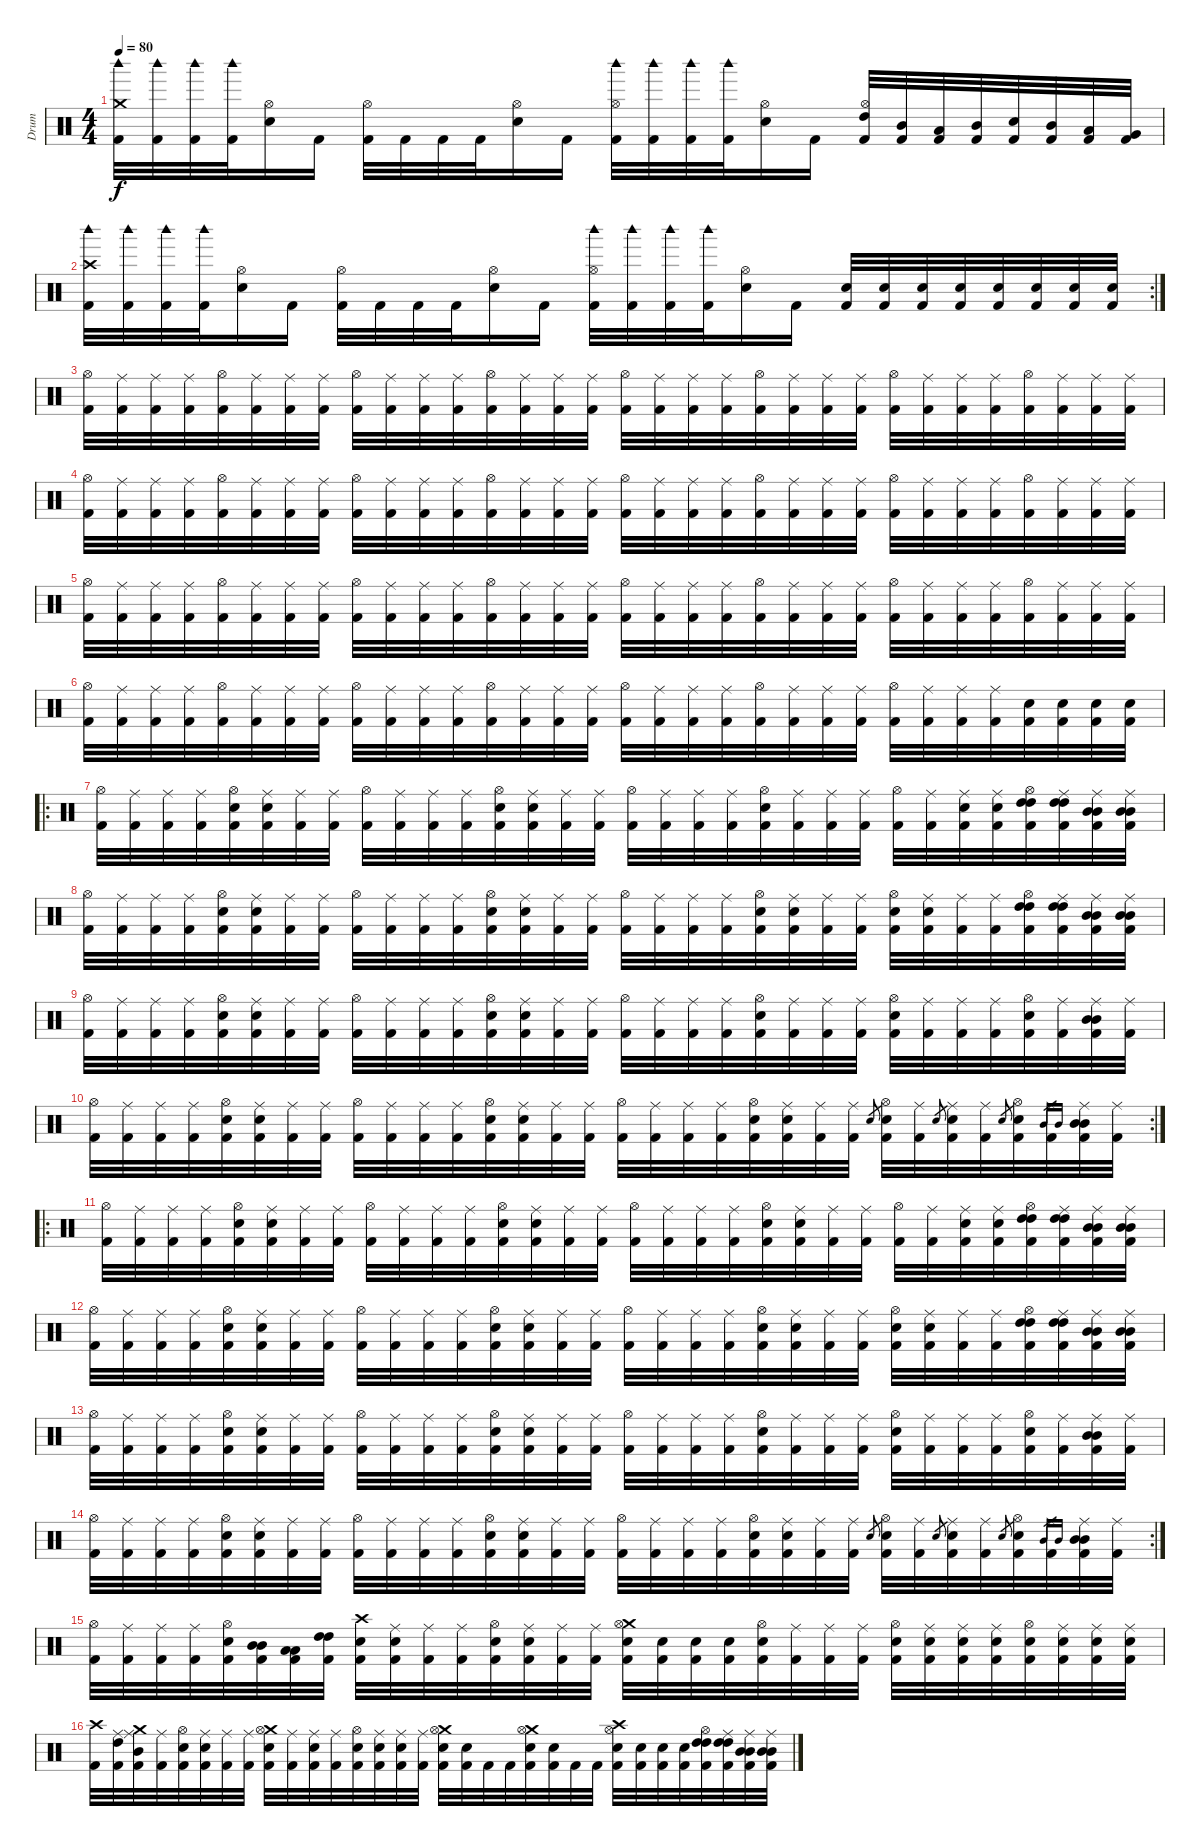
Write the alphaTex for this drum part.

\track ("Drum" "Drum") {instrument percussion}
\staff {score}
\articulation defaults
\ts (4 4)
\tempo 80
\clef neutral
\ks c
("Woodblock high (hit)" "Crash medium (hit)" "Kick (hit) 2").32{dy f} ("Woodblock high (hit)" "Kick (hit) 2").32 ("Woodblock high (hit)" "Kick (hit) 2").32 ("Woodblock high (hit)" "Kick (hit) 2").32 ("Hi-Hat (open)" "Electric Snare (hit)").16 "Kick (hit) 2".16 ("Hi-Hat (open)" "Kick (hit) 2").32 "Kick (hit) 2".32 "Kick (hit) 2".32 "Kick (hit) 2".32 ("Hi-Hat (open)" "Electric Snare (hit)").16 "Kick (hit) 2".16 ("Woodblock high (hit)" "Hi-Hat (open)" "Kick (hit) 2").32 ("Woodblock high (hit)" "Kick (hit) 2").32 ("Woodblock high (hit)" "Kick (hit) 2").32 ("Woodblock high (hit)" "Kick (hit) 2").32 ("Hi-Hat (open)" "Electric Snare (hit)").16 "Kick (hit) 2".16 ("Hi-Hat (open)" "High Tom (hit)" "Kick (hit) 2").32 ("Mid Tom (hit)" "Kick (hit) 2").32 ("Low Tom (hit)" "Kick (hit) 2").32 ("Mid Tom (hit)" "Kick (hit) 2").32 ("Electric Snare (hit)" "Kick (hit) 2").32 ("Mid Tom (hit)" "Kick (hit) 2").32 ("Low Tom (hit)" "Kick (hit) 2").32 ("Very Low Tom (hit)" "Kick (hit) 2").32 |
\rc 2
("Woodblock high (hit)" "Crash high (hit)" "Kick (hit) 2").32 ("Woodblock high (hit)" "Kick (hit) 2").32 ("Woodblock high (hit)" "Kick (hit) 2").32 ("Woodblock high (hit)" "Kick (hit) 2").32 ("Hi-Hat (open)" "Electric Snare (hit)").16 "Kick (hit) 2".16 ("Hi-Hat (open)" "Kick (hit) 2").32 "Kick (hit) 2".32 "Kick (hit) 2".32 "Kick (hit) 2".32 ("Hi-Hat (open)" "Electric Snare (hit)").16 "Kick (hit) 2".16 ("Woodblock high (hit)" "Hi-Hat (open)" "Kick (hit) 2").32 ("Woodblock high (hit)" "Kick (hit) 2").32 ("Woodblock high (hit)" "Kick (hit) 2").32 ("Woodblock high (hit)" "Kick (hit) 2").32 ("Hi-Hat (open)" "Electric Snare (hit)").16 "Kick (hit) 2".16 ("Electric Snare (hit)" "Kick (hit) 2").32 ("Electric Snare (hit)" "Kick (hit) 2").32 ("Electric Snare (hit)" "Kick (hit) 2").32 ("Electric Snare (hit)" "Kick (hit) 2").32 ("Electric Snare (hit)" "Kick (hit) 2").32 ("Electric Snare (hit)" "Kick (hit) 2").32 ("Electric Snare (hit)" "Kick (hit) 2").32 ("Electric Snare (hit)" "Kick (hit) 2").32 |
("Hi-Hat (open)" "Kick (hit) 2").32 ("Ride (middle)" "Kick (hit) 2").32 ("Ride (middle)" "Kick (hit) 2").32 ("Ride (middle)" "Kick (hit) 2").32 ("Hi-Hat (open)" "Kick (hit) 2").32 ("Ride (middle)" "Kick (hit) 2").32 ("Ride (middle)" "Kick (hit) 2").32 ("Ride (middle)" "Kick (hit) 2").32 ("Hi-Hat (open)" "Kick (hit) 2").32 ("Ride (middle)" "Kick (hit) 2").32 ("Ride (middle)" "Kick (hit) 2").32 ("Ride (middle)" "Kick (hit) 2").32 ("Hi-Hat (open)" "Kick (hit) 2").32 ("Ride (middle)" "Kick (hit) 2").32 ("Ride (middle)" "Kick (hit) 2").32 ("Ride (middle)" "Kick (hit) 2").32 ("Hi-Hat (open)" "Kick (hit) 2").32 ("Ride (middle)" "Kick (hit) 2").32 ("Ride (middle)" "Kick (hit) 2").32 ("Ride (middle)" "Kick (hit) 2").32 ("Hi-Hat (open)" "Kick (hit) 2").32 ("Ride (middle)" "Kick (hit) 2").32 ("Ride (middle)" "Kick (hit) 2").32 ("Ride (middle)" "Kick (hit) 2").32 ("Hi-Hat (open)" "Kick (hit) 2").32 ("Ride (middle)" "Kick (hit) 2").32 ("Ride (middle)" "Kick (hit) 2").32 ("Ride (middle)" "Kick (hit) 2").32 ("Hi-Hat (open)" "Kick (hit) 2").32 ("Ride (middle)" "Kick (hit) 2").32 ("Ride (middle)" "Kick (hit) 2").32 ("Ride (middle)" "Kick (hit) 2").32 |
("Hi-Hat (open)" "Kick (hit) 2").32 ("Ride (middle)" "Kick (hit) 2").32 ("Ride (middle)" "Kick (hit) 2").32 ("Ride (middle)" "Kick (hit) 2").32 ("Hi-Hat (open)" "Kick (hit) 2").32 ("Ride (middle)" "Kick (hit) 2").32 ("Ride (middle)" "Kick (hit) 2").32 ("Ride (middle)" "Kick (hit) 2").32 ("Hi-Hat (open)" "Kick (hit) 2").32 ("Ride (middle)" "Kick (hit) 2").32 ("Ride (middle)" "Kick (hit) 2").32 ("Ride (middle)" "Kick (hit) 2").32 ("Hi-Hat (open)" "Kick (hit) 2").32 ("Ride (middle)" "Kick (hit) 2").32 ("Ride (middle)" "Kick (hit) 2").32 ("Ride (middle)" "Kick (hit) 2").32 ("Hi-Hat (open)" "Kick (hit) 2").32 ("Ride (middle)" "Kick (hit) 2").32 ("Ride (middle)" "Kick (hit) 2").32 ("Ride (middle)" "Kick (hit) 2").32 ("Hi-Hat (open)" "Kick (hit) 2").32 ("Ride (middle)" "Kick (hit) 2").32 ("Ride (middle)" "Kick (hit) 2").32 ("Ride (middle)" "Kick (hit) 2").32 ("Hi-Hat (open)" "Kick (hit) 2").32 ("Ride (middle)" "Kick (hit) 2").32 ("Ride (middle)" "Kick (hit) 2").32 ("Ride (middle)" "Kick (hit) 2").32 ("Hi-Hat (open)" "Kick (hit) 2").32 ("Ride (middle)" "Kick (hit) 2").32 ("Ride (middle)" "Kick (hit) 2").32 ("Ride (middle)" "Kick (hit) 2").32 |
("Hi-Hat (open)" "Kick (hit) 2").32 ("Ride (middle)" "Kick (hit) 2").32 ("Ride (middle)" "Kick (hit) 2").32 ("Ride (middle)" "Kick (hit) 2").32 ("Hi-Hat (open)" "Kick (hit) 2").32 ("Ride (middle)" "Kick (hit) 2").32 ("Ride (middle)" "Kick (hit) 2").32 ("Ride (middle)" "Kick (hit) 2").32 ("Hi-Hat (open)" "Kick (hit) 2").32 ("Ride (middle)" "Kick (hit) 2").32 ("Ride (middle)" "Kick (hit) 2").32 ("Ride (middle)" "Kick (hit) 2").32 ("Hi-Hat (open)" "Kick (hit) 2").32 ("Ride (middle)" "Kick (hit) 2").32 ("Ride (middle)" "Kick (hit) 2").32 ("Ride (middle)" "Kick (hit) 2").32 ("Hi-Hat (open)" "Kick (hit) 2").32 ("Ride (middle)" "Kick (hit) 2").32 ("Ride (middle)" "Kick (hit) 2").32 ("Ride (middle)" "Kick (hit) 2").32 ("Hi-Hat (open)" "Kick (hit) 2").32 ("Ride (middle)" "Kick (hit) 2").32 ("Ride (middle)" "Kick (hit) 2").32 ("Ride (middle)" "Kick (hit) 2").32 ("Hi-Hat (open)" "Kick (hit) 2").32 ("Ride (middle)" "Kick (hit) 2").32 ("Ride (middle)" "Kick (hit) 2").32 ("Ride (middle)" "Kick (hit) 2").32 ("Hi-Hat (open)" "Kick (hit) 2").32 ("Ride (middle)" "Kick (hit) 2").32 ("Ride (middle)" "Kick (hit) 2").32 ("Ride (middle)" "Kick (hit) 2").32 |
("Hi-Hat (open)" "Kick (hit) 2").32 ("Ride (middle)" "Kick (hit) 2").32 ("Ride (middle)" "Kick (hit) 2").32 ("Ride (middle)" "Kick (hit) 2").32 ("Hi-Hat (open)" "Kick (hit) 2").32 ("Ride (middle)" "Kick (hit) 2").32 ("Ride (middle)" "Kick (hit) 2").32 ("Ride (middle)" "Kick (hit) 2").32 ("Hi-Hat (open)" "Kick (hit) 2").32 ("Ride (middle)" "Kick (hit) 2").32 ("Ride (middle)" "Kick (hit) 2").32 ("Ride (middle)" "Kick (hit) 2").32 ("Hi-Hat (open)" "Kick (hit) 2").32 ("Ride (middle)" "Kick (hit) 2").32 ("Ride (middle)" "Kick (hit) 2").32 ("Ride (middle)" "Kick (hit) 2").32 ("Hi-Hat (open)" "Kick (hit) 2").32 ("Ride (middle)" "Kick (hit) 2").32 ("Ride (middle)" "Kick (hit) 2").32 ("Ride (middle)" "Kick (hit) 2").32 ("Hi-Hat (open)" "Kick (hit) 2").32 ("Ride (middle)" "Kick (hit) 2").32 ("Ride (middle)" "Kick (hit) 2").32 ("Ride (middle)" "Kick (hit) 2").32 ("Hi-Hat (open)" "Kick (hit) 2").32 ("Ride (middle)" "Kick (hit) 2").32 ("Ride (middle)" "Kick (hit) 2").32 ("Ride (middle)" "Kick (hit) 2").32 ("Electric Snare (hit)" "Kick (hit) 2").32 ("Electric Snare (hit)" "Kick (hit) 2").32 ("Electric Snare (hit)" "Kick (hit) 2").32 ("Electric Snare (hit)" "Kick (hit) 2").32 |
\ro
("Hi-Hat (open)" "Kick (hit) 2").32 ("Ride (middle)" "Kick (hit) 2").32 ("Ride (middle)" "Kick (hit) 2").32 ("Ride (middle)" "Kick (hit) 2").32 ("Hi-Hat (open)" "Electric Snare (hit)" "Kick (hit) 2").32 ("Ride (middle)" "Electric Snare (hit)" "Kick (hit) 2").32 ("Ride (middle)" "Kick (hit) 2").32 ("Ride (middle)" "Kick (hit) 2").32 ("Hi-Hat (open)" "Kick (hit) 2").32 ("Ride (middle)" "Kick (hit) 2").32 ("Ride (middle)" "Kick (hit) 2").32 ("Ride (middle)" "Kick (hit) 2").32 ("Hi-Hat (open)" "Electric Snare (hit)" "Kick (hit) 2").32 ("Ride (middle)" "Electric Snare (hit)" "Kick (hit) 2").32 ("Ride (middle)" "Kick (hit) 2").32 ("Ride (middle)" "Kick (hit) 2").32 ("Hi-Hat (open)" "Kick (hit) 2").32 ("Ride (middle)" "Kick (hit) 2").32 ("Ride (middle)" "Kick (hit) 2").32 ("Ride (middle)" "Kick (hit) 2").32 ("Hi-Hat (open)" "Electric Snare (hit)" "Kick (hit) 2").32 ("Ride (middle)" "Kick (hit) 2").32 ("Ride (middle)" "Kick (hit) 2").32 ("Ride (middle)" "Kick (hit) 2").32 ("Hi-Hat (open)" "Kick (hit) 2").32 ("Ride (middle)" "Kick (hit) 2").32 ("Ride (middle)" "Electric Snare (hit)" "Kick (hit) 2").32 ("Ride (middle)" "Electric Snare (hit)" "Kick (hit) 2").32 ("Hi-Hat (open)" "High Tom (hit)" "High Tom (hit)" "Kick (hit) 2").32 ("Ride (middle)" "High Tom (hit)" "High Tom (hit)" "Kick (hit) 2").32 ("Ride (middle)" "Mid Tom (hit)" "Mid Tom (hit)" "Kick (hit) 2").32 ("Ride (middle)" "Mid Tom (hit)" "Mid Tom (hit)" "Kick (hit) 2").32 |
("Hi-Hat (open)" "Kick (hit) 2").32 ("Ride (middle)" "Kick (hit) 2").32 ("Ride (middle)" "Kick (hit) 2").32 ("Ride (middle)" "Kick (hit) 2").32 ("Hi-Hat (open)" "Electric Snare (hit)" "Kick (hit) 2").32 ("Ride (middle)" "Electric Snare (hit)" "Kick (hit) 2").32 ("Ride (middle)" "Kick (hit) 2").32 ("Ride (middle)" "Kick (hit) 2").32 ("Hi-Hat (open)" "Kick (hit) 2").32 ("Ride (middle)" "Kick (hit) 2").32 ("Ride (middle)" "Kick (hit) 2").32 ("Ride (middle)" "Kick (hit) 2").32 ("Hi-Hat (open)" "Electric Snare (hit)" "Kick (hit) 2").32 ("Ride (middle)" "Electric Snare (hit)" "Kick (hit) 2").32 ("Ride (middle)" "Kick (hit) 2").32 ("Ride (middle)" "Kick (hit) 2").32 ("Hi-Hat (open)" "Kick (hit) 2").32 ("Ride (middle)" "Kick (hit) 2").32 ("Ride (middle)" "Kick (hit) 2").32 ("Ride (middle)" "Kick (hit) 2").32 ("Hi-Hat (open)" "Electric Snare (hit)" "Kick (hit) 2").32 ("Ride (middle)" "Electric Snare (hit)" "Kick (hit) 2").32 ("Ride (middle)" "Kick (hit) 2").32 ("Ride (middle)" "Kick (hit) 2").32 ("Hi-Hat (open)" "Electric Snare (hit)" "Kick (hit) 2").32 ("Ride (middle)" "Electric Snare (hit)" "Kick (hit) 2").32 ("Ride (middle)" "Kick (hit) 2").32 ("Ride (middle)" "Kick (hit) 2").32 ("Hi-Hat (open)" "High Tom (hit)" "High Tom (hit)" "Kick (hit) 2").32 ("Ride (middle)" "High Tom (hit)" "High Tom (hit)" "Kick (hit) 2").32 ("Ride (middle)" "Mid Tom (hit)" "Mid Tom (hit)" "Kick (hit) 2").32 ("Ride (middle)" "Mid Tom (hit)" "Mid Tom (hit)" "Kick (hit) 2").32 |
("Hi-Hat (open)" "Kick (hit) 2").32 ("Ride (middle)" "Kick (hit) 2").32 ("Ride (middle)" "Kick (hit) 2").32 ("Ride (middle)" "Kick (hit) 2").32 ("Hi-Hat (open)" "Electric Snare (hit)" "Kick (hit) 2").32 ("Ride (middle)" "Electric Snare (hit)" "Kick (hit) 2").32 ("Ride (middle)" "Kick (hit) 2").32 ("Ride (middle)" "Kick (hit) 2").32 ("Hi-Hat (open)" "Kick (hit) 2").32 ("Ride (middle)" "Kick (hit) 2").32 ("Ride (middle)" "Kick (hit) 2").32 ("Ride (middle)" "Kick (hit) 2").32 ("Hi-Hat (open)" "Electric Snare (hit)" "Kick (hit) 2").32 ("Ride (middle)" "Electric Snare (hit)" "Kick (hit) 2").32 ("Ride (middle)" "Kick (hit) 2").32 ("Ride (middle)" "Kick (hit) 2").32 ("Hi-Hat (open)" "Kick (hit) 2").32 ("Ride (middle)" "Kick (hit) 2").32 ("Ride (middle)" "Kick (hit) 2").32 ("Ride (middle)" "Kick (hit) 2").32 ("Hi-Hat (open)" "Electric Snare (hit)" "Kick (hit) 2").32 ("Ride (middle)" "Kick (hit) 2").32 ("Ride (middle)" "Kick (hit) 2").32 ("Ride (middle)" "Kick (hit) 2").32 ("Hi-Hat (open)" "Electric Snare (hit)" "Kick (hit) 2").32 ("Ride (middle)" "Kick (hit) 2").32 ("Ride (middle)" "Kick (hit) 2").32 ("Ride (middle)" "Kick (hit) 2").32 ("Hi-Hat (open)" "Electric Snare (hit)" "Kick (hit) 2").32 ("Ride (middle)" "Kick (hit) 2").32 ("Ride (middle)" "Mid Tom (hit)" "Mid Tom (hit)" "Kick (hit) 2").32 ("Ride (middle)" "Kick (hit) 2").32 |
\rc 2
("Hi-Hat (open)" "Kick (hit) 2").32 ("Ride (middle)" "Kick (hit) 2").32 ("Ride (middle)" "Kick (hit) 2").32 ("Ride (middle)" "Kick (hit) 2").32 ("Hi-Hat (open)" "Electric Snare (hit)" "Kick (hit) 2").32 ("Ride (middle)" "Electric Snare (hit)" "Kick (hit) 2").32 ("Ride (middle)" "Kick (hit) 2").32 ("Ride (middle)" "Kick (hit) 2").32 ("Hi-Hat (open)" "Kick (hit) 2").32 ("Ride (middle)" "Kick (hit) 2").32 ("Ride (middle)" "Kick (hit) 2").32 ("Ride (middle)" "Kick (hit) 2").32 ("Hi-Hat (open)" "Electric Snare (hit)" "Kick (hit) 2").32 ("Ride (middle)" "Electric Snare (hit)" "Kick (hit) 2").32 ("Ride (middle)" "Kick (hit) 2").32 ("Ride (middle)" "Kick (hit) 2").32 ("Hi-Hat (open)" "Kick (hit) 2").32 ("Ride (middle)" "Kick (hit) 2").32 ("Ride (middle)" "Kick (hit) 2").32 ("Ride (middle)" "Kick (hit) 2").32 ("Hi-Hat (open)" "Electric Snare (hit)" "Kick (hit) 2").32 ("Ride (middle)" "Electric Snare (hit)" "Kick (hit) 2").32 ("Ride (middle)" "Kick (hit) 2").32 ("Ride (middle)" "Kick (hit) 2").32 "Electric Snare (hit)".8{gr} ("Hi-Hat (open)" "Electric Snare (hit)" "Kick (hit) 2").32 ("Ride (middle)" "Kick (hit) 2").32 "Electric Snare (hit)".8{gr} ("Ride (middle)" "Electric Snare (hit)" "Kick (hit) 2").32 ("Ride (middle)" "Kick (hit) 2").32 "Electric Snare (hit)".8{gr} ("Hi-Hat (open)" "Electric Snare (hit)" "Kick (hit) 2").32 ("Ride (middle)" "Kick (hit) 2").32 "Mid Tom (hit)".16{gr} "Mid Tom (hit)".16{gr} ("Ride (middle)" "Mid Tom (hit)" "Mid Tom (hit)" "Kick (hit) 2").32 ("Ride (middle)" "Kick (hit) 2").32 |
\ro
("Hi-Hat (open)" "Kick (hit) 2").32 ("Ride (middle)" "Kick (hit) 2").32 ("Ride (middle)" "Kick (hit) 2").32 ("Ride (middle)" "Kick (hit) 2").32 ("Hi-Hat (open)" "Electric Snare (hit)" "Kick (hit) 2").32 ("Ride (middle)" "Electric Snare (hit)" "Kick (hit) 2").32 ("Ride (middle)" "Kick (hit) 2").32 ("Ride (middle)" "Kick (hit) 2").32 ("Hi-Hat (open)" "Kick (hit) 2").32 ("Ride (middle)" "Kick (hit) 2").32 ("Ride (middle)" "Kick (hit) 2").32 ("Ride (middle)" "Kick (hit) 2").32 ("Hi-Hat (open)" "Electric Snare (hit)" "Kick (hit) 2").32 ("Ride (middle)" "Electric Snare (hit)" "Kick (hit) 2").32 ("Ride (middle)" "Kick (hit) 2").32 ("Ride (middle)" "Kick (hit) 2").32 ("Hi-Hat (open)" "Kick (hit) 2").32 ("Ride (middle)" "Kick (hit) 2").32 ("Ride (middle)" "Kick (hit) 2").32 ("Ride (middle)" "Kick (hit) 2").32 ("Hi-Hat (open)" "Electric Snare (hit)" "Kick (hit) 2").32 ("Ride (middle)" "Electric Snare (hit)" "Kick (hit) 2").32 ("Ride (middle)" "Kick (hit) 2").32 ("Ride (middle)" "Kick (hit) 2").32 ("Hi-Hat (open)" "Kick (hit) 2").32 ("Ride (middle)" "Kick (hit) 2").32 ("Ride (middle)" "Electric Snare (hit)" "Kick (hit) 2").32 ("Ride (middle)" "Electric Snare (hit)" "Kick (hit) 2").32 ("Hi-Hat (open)" "High Tom (hit)" "High Tom (hit)" "Kick (hit) 2").32 ("Ride (middle)" "High Tom (hit)" "High Tom (hit)" "Kick (hit) 2").32 ("Ride (middle)" "Mid Tom (hit)" "Mid Tom (hit)" "Kick (hit) 2").32 ("Ride (middle)" "Mid Tom (hit)" "Mid Tom (hit)" "Kick (hit) 2").32 |
("Hi-Hat (open)" "Kick (hit) 2").32 ("Ride (middle)" "Kick (hit) 2").32 ("Ride (middle)" "Kick (hit) 2").32 ("Ride (middle)" "Kick (hit) 2").32 ("Hi-Hat (open)" "Electric Snare (hit)" "Kick (hit) 2").32 ("Ride (middle)" "Electric Snare (hit)" "Kick (hit) 2").32 ("Ride (middle)" "Kick (hit) 2").32 ("Ride (middle)" "Kick (hit) 2").32 ("Hi-Hat (open)" "Kick (hit) 2").32 ("Ride (middle)" "Kick (hit) 2").32 ("Ride (middle)" "Kick (hit) 2").32 ("Ride (middle)" "Kick (hit) 2").32 ("Hi-Hat (open)" "Electric Snare (hit)" "Kick (hit) 2").32 ("Ride (middle)" "Electric Snare (hit)" "Kick (hit) 2").32 ("Ride (middle)" "Kick (hit) 2").32 ("Ride (middle)" "Kick (hit) 2").32 ("Hi-Hat (open)" "Kick (hit) 2").32 ("Ride (middle)" "Kick (hit) 2").32 ("Ride (middle)" "Kick (hit) 2").32 ("Ride (middle)" "Kick (hit) 2").32 ("Hi-Hat (open)" "Electric Snare (hit)" "Kick (hit) 2").32 ("Ride (middle)" "Electric Snare (hit)" "Kick (hit) 2").32 ("Ride (middle)" "Kick (hit) 2").32 ("Ride (middle)" "Kick (hit) 2").32 ("Hi-Hat (open)" "Electric Snare (hit)" "Kick (hit) 2").32 ("Ride (middle)" "Electric Snare (hit)" "Kick (hit) 2").32 ("Ride (middle)" "Kick (hit) 2").32 ("Ride (middle)" "Kick (hit) 2").32 ("Hi-Hat (open)" "High Tom (hit)" "High Tom (hit)" "Kick (hit) 2").32 ("Ride (middle)" "High Tom (hit)" "High Tom (hit)" "Kick (hit) 2").32 ("Ride (middle)" "Mid Tom (hit)" "Mid Tom (hit)" "Kick (hit) 2").32 ("Ride (middle)" "Mid Tom (hit)" "Mid Tom (hit)" "Kick (hit) 2").32 |
("Hi-Hat (open)" "Kick (hit) 2").32 ("Ride (middle)" "Kick (hit) 2").32 ("Ride (middle)" "Kick (hit) 2").32 ("Ride (middle)" "Kick (hit) 2").32 ("Hi-Hat (open)" "Electric Snare (hit)" "Kick (hit) 2").32 ("Ride (middle)" "Electric Snare (hit)" "Kick (hit) 2").32 ("Ride (middle)" "Kick (hit) 2").32 ("Ride (middle)" "Kick (hit) 2").32 ("Hi-Hat (open)" "Kick (hit) 2").32 ("Ride (middle)" "Kick (hit) 2").32 ("Ride (middle)" "Kick (hit) 2").32 ("Ride (middle)" "Kick (hit) 2").32 ("Hi-Hat (open)" "Electric Snare (hit)" "Kick (hit) 2").32 ("Ride (middle)" "Electric Snare (hit)" "Kick (hit) 2").32 ("Ride (middle)" "Kick (hit) 2").32 ("Ride (middle)" "Kick (hit) 2").32 ("Hi-Hat (open)" "Kick (hit) 2").32 ("Ride (middle)" "Kick (hit) 2").32 ("Ride (middle)" "Kick (hit) 2").32 ("Ride (middle)" "Kick (hit) 2").32 ("Hi-Hat (open)" "Electric Snare (hit)" "Kick (hit) 2").32 ("Ride (middle)" "Kick (hit) 2").32 ("Ride (middle)" "Kick (hit) 2").32 ("Ride (middle)" "Kick (hit) 2").32 ("Hi-Hat (open)" "Electric Snare (hit)" "Kick (hit) 2").32 ("Ride (middle)" "Kick (hit) 2").32 ("Ride (middle)" "Kick (hit) 2").32 ("Ride (middle)" "Kick (hit) 2").32 ("Hi-Hat (open)" "Electric Snare (hit)" "Kick (hit) 2").32 ("Ride (middle)" "Kick (hit) 2").32 ("Ride (middle)" "Mid Tom (hit)" "Mid Tom (hit)" "Kick (hit) 2").32 ("Ride (middle)" "Kick (hit) 2").32 |
\rc 2
("Hi-Hat (open)" "Kick (hit) 2").32 ("Ride (middle)" "Kick (hit) 2").32 ("Ride (middle)" "Kick (hit) 2").32 ("Ride (middle)" "Kick (hit) 2").32 ("Hi-Hat (open)" "Electric Snare (hit)" "Kick (hit) 2").32 ("Ride (middle)" "Electric Snare (hit)" "Kick (hit) 2").32 ("Ride (middle)" "Kick (hit) 2").32 ("Ride (middle)" "Kick (hit) 2").32 ("Hi-Hat (open)" "Kick (hit) 2").32 ("Ride (middle)" "Kick (hit) 2").32 ("Ride (middle)" "Kick (hit) 2").32 ("Ride (middle)" "Kick (hit) 2").32 ("Hi-Hat (open)" "Electric Snare (hit)" "Kick (hit) 2").32 ("Ride (middle)" "Electric Snare (hit)" "Kick (hit) 2").32 ("Ride (middle)" "Kick (hit) 2").32 ("Ride (middle)" "Kick (hit) 2").32 ("Hi-Hat (open)" "Kick (hit) 2").32 ("Ride (middle)" "Kick (hit) 2").32 ("Ride (middle)" "Kick (hit) 2").32 ("Ride (middle)" "Kick (hit) 2").32 ("Hi-Hat (open)" "Electric Snare (hit)" "Kick (hit) 2").32 ("Ride (middle)" "Electric Snare (hit)" "Kick (hit) 2").32 ("Ride (middle)" "Kick (hit) 2").32 ("Ride (middle)" "Kick (hit) 2").32 "Electric Snare (hit)".8{gr} ("Hi-Hat (open)" "Electric Snare (hit)" "Kick (hit) 2").32 ("Ride (middle)" "Kick (hit) 2").32 "Electric Snare (hit)".8{gr} ("Ride (middle)" "Electric Snare (hit)" "Kick (hit) 2").32 ("Ride (middle)" "Kick (hit) 2").32 "Electric Snare (hit)".8{gr} ("Hi-Hat (open)" "Electric Snare (hit)" "Kick (hit) 2").32 ("Ride (middle)" "Kick (hit) 2").32 "Mid Tom (hit)".16{gr} "Mid Tom (hit)".16{gr} ("Ride (middle)" "Mid Tom (hit)" "Mid Tom (hit)" "Kick (hit) 2").32 ("Ride (middle)" "Kick (hit) 2").32 |
("Hi-Hat (open)" "Kick (hit) 2").32 ("Ride (middle)" "Kick (hit) 2").32 ("Ride (middle)" "Kick (hit) 2").32 ("Ride (middle)" "Kick (hit) 2").32 ("Hi-Hat (open)" "Electric Snare (hit)" "Kick (hit) 2").32 ("Mid Tom (hit)" "Mid Tom (hit)" "Kick (hit) 2").32 ("Low Tom (hit)" "Low Tom (hit)" "Kick (hit) 2").32 ("High Tom (hit)" "High Tom (hit)" "Kick (hit) 2").32 ("Crash high (hit)" "Electric Snare (hit)" "Kick (hit) 2").32 ("Ride (middle)" "Electric Snare (hit)" "Kick (hit) 2").32 ("Ride (middle)" "Kick (hit) 2").32 ("Ride (middle)" "Kick (hit) 2").32 ("Hi-Hat (open)" "Electric Snare (hit)" "Kick (hit) 2").32 ("Ride (middle)" "Electric Snare (hit)" "Kick (hit) 2").32 ("Ride (middle)" "Kick (hit) 2").32 ("Ride (middle)" "Kick (hit) 2").32 ("Crash medium (hit)" "Hi-Hat (open)" "Electric Snare (hit)" "Kick (hit) 2").32 ("Electric Snare (hit)" "Kick (hit) 2").32 ("Electric Snare (hit)" "Kick (hit) 2").32 ("Electric Snare (hit)" "Kick (hit) 2").32 ("Hi-Hat (open)" "Electric Snare (hit)" "Kick (hit) 2").32 ("Ride (middle)" "Kick (hit) 2").32 ("Ride (middle)" "Kick (hit) 2").32 ("Ride (middle)" "Kick (hit) 2").32 ("Hi-Hat (open)" "Electric Snare (hit)" "Kick (hit) 2").32 ("Ride (middle)" "Electric Snare (hit)" "Kick (hit) 2").32 ("Ride (middle)" "Electric Snare (hit)" "Kick (hit) 2").32 ("Ride (middle)" "Electric Snare (hit)" "Kick (hit) 2").32 ("Hi-Hat (open)" "Electric Snare (hit)" "Kick (hit) 2").32 ("Ride (middle)" "Electric Snare (hit)" "Kick (hit) 2").32 ("Ride (middle)" "Electric Snare (hit)" "Kick (hit) 2").32 ("Ride (middle)" "Electric Snare (hit)" "Kick (hit) 2").32 |
("Crash high (hit)" "Kick (hit) 2").32 ("Ride (middle)" "High Tom (hit)" "Kick (hit) 2").32 ("Ride (middle)" "Crash medium (hit)" "Mid Tom (hit)" "Kick (hit) 2").32 ("Ride (middle)" "Kick (hit) 2").32 ("Hi-Hat (open)" "Electric Snare (hit)" "Kick (hit) 2").32 ("Ride (middle)" "Electric Snare (hit)" "Kick (hit) 2").32 ("Ride (middle)" "Kick (hit) 2").32 ("Ride (middle)" "Kick (hit) 2").32 ("Crash medium (hit)" "Hi-Hat (open)" "Electric Snare (hit)" "Kick (hit) 2").32 ("Ride (middle)" "Kick (hit) 2").32 ("Ride (middle)" "Electric Snare (hit)" "Kick (hit) 2").32 ("Ride (middle)" "Kick (hit) 2").32 ("Hi-Hat (open)" "Electric Snare (hit)" "Kick (hit) 2").32 ("Ride (middle)" "Electric Snare (hit)" "Kick (hit) 2").32 ("Ride (middle)" "Electric Snare (hit)" "Kick (hit) 2").32 ("Ride (middle)" "Kick (hit) 2").32 ("Crash medium (hit)" "Hi-Hat (open)" "Electric Snare (hit)" "Kick (hit) 2").32 ("Electric Snare (hit)" "Kick (hit) 2").32 "Kick (hit) 2".32 "Kick (hit) 2".32 ("Crash medium (hit)" "Hi-Hat (open)" "Electric Snare (hit)" "Kick (hit) 2").32 ("Electric Snare (hit)" "Kick (hit) 2").32 "Kick (hit) 2".32 "Kick (hit) 2".32 ("Crash high (hit)" "Hi-Hat (open)" "Electric Snare (hit)" "Kick (hit) 2").32 ("Electric Snare (hit)" "Kick (hit) 2").32 ("Electric Snare (hit)" "Kick (hit) 2").32 ("Electric Snare (hit)" "Kick (hit) 2").32 ("Hi-Hat (open)" "High Tom (hit)" "High Tom (hit)" "Kick (hit) 2").32 ("Ride (middle)" "High Tom (hit)" "High Tom (hit)" "Kick (hit) 2").32 ("Ride (middle)" "Mid Tom (hit)" "Mid Tom (hit)" "Kick (hit) 2").32 ("Ride (middle)" "Mid Tom (hit)" "Mid Tom (hit)" "Kick (hit) 2").32
